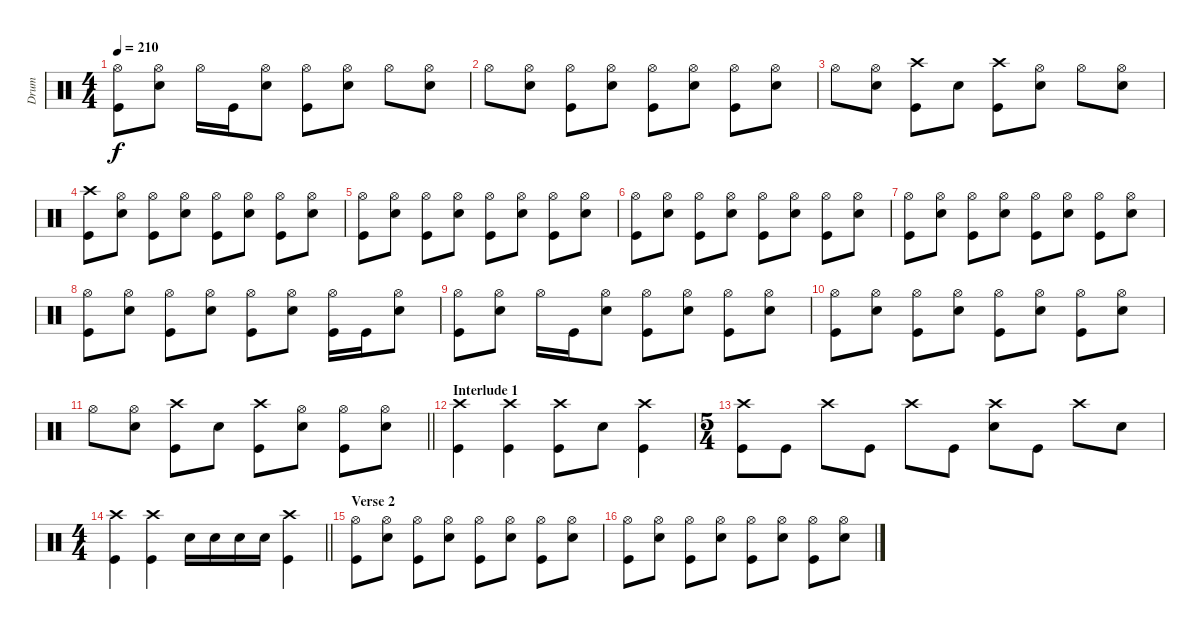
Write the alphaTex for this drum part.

\track ("Drum" "Drum") {instrument percussion}
\staff {score}
\articulation defaults
\ts (4 4)
\tempo 210
\clef neutral
\ks c
("Hi-Hat (open)" "Kick (hit)").8{dy f} ("Hi-Hat (open)" "Snare (hit) 2").8 "Hi-Hat (open)".16 "Kick (hit)".16 ("Hi-Hat (open)" "Snare (hit) 2").8 ("Hi-Hat (open)" "Kick (hit)").8 ("Hi-Hat (open)" "Snare (hit) 2").8 "Hi-Hat (open)".8 ("Hi-Hat (open)" "Snare (hit) 2").8 |
"Hi-Hat (open)".8 ("Hi-Hat (open)" "Snare (hit) 2").8 ("Hi-Hat (open)" "Kick (hit)").8 ("Hi-Hat (open)" "Snare (hit) 2").8 ("Hi-Hat (open)" "Kick (hit)").8 ("Hi-Hat (open)" "Snare (hit) 2").8 ("Hi-Hat (open)" "Kick (hit)").8 ("Hi-Hat (open)" "Snare (hit) 2").8 |
"Hi-Hat (open)".8 ("Hi-Hat (open)" "Snare (hit) 2").8 ("Crash high (hit)" "Kick (hit)").8 "Snare (hit) 2".8 ("Crash high (hit)" "Kick (hit)").8 ("Hi-Hat (open)" "Snare (hit) 2").8 "Hi-Hat (open)".8 ("Hi-Hat (open)" "Snare (hit) 2").8 |
("Crash high (hit)" "Kick (hit)").8 ("Hi-Hat (open)" "Snare (hit) 2").8 ("Hi-Hat (open)" "Kick (hit)").8 ("Hi-Hat (open)" "Snare (hit) 2").8 ("Hi-Hat (open)" "Kick (hit)").8 ("Hi-Hat (open)" "Snare (hit) 2").8 ("Hi-Hat (open)" "Kick (hit)").8 ("Hi-Hat (open)" "Snare (hit) 2").8 |
("Hi-Hat (open)" "Kick (hit)").8 ("Hi-Hat (open)" "Snare (hit) 2").8 ("Hi-Hat (open)" "Kick (hit)").8 ("Hi-Hat (open)" "Snare (hit) 2").8 ("Hi-Hat (open)" "Kick (hit)").8 ("Hi-Hat (open)" "Snare (hit) 2").8 ("Hi-Hat (open)" "Kick (hit)").8 ("Hi-Hat (open)" "Snare (hit) 2").8 |
("Hi-Hat (open)" "Kick (hit)").8 ("Hi-Hat (open)" "Snare (hit) 2").8 ("Hi-Hat (open)" "Kick (hit)").8 ("Hi-Hat (open)" "Snare (hit) 2").8 ("Hi-Hat (open)" "Kick (hit)").8 ("Hi-Hat (open)" "Snare (hit) 2").8 ("Hi-Hat (open)" "Kick (hit)").8 ("Hi-Hat (open)" "Snare (hit) 2").8 |
("Hi-Hat (open)" "Kick (hit)").8 ("Hi-Hat (open)" "Snare (hit) 2").8 ("Hi-Hat (open)" "Kick (hit)").8 ("Hi-Hat (open)" "Snare (hit) 2").8 ("Hi-Hat (open)" "Kick (hit)").8 ("Hi-Hat (open)" "Snare (hit) 2").8 ("Hi-Hat (open)" "Kick (hit)").8 ("Hi-Hat (open)" "Snare (hit) 2").8 |
("Hi-Hat (open)" "Kick (hit)").8 ("Hi-Hat (open)" "Snare (hit) 2").8 ("Hi-Hat (open)" "Kick (hit)").8 ("Hi-Hat (open)" "Snare (hit) 2").8 ("Hi-Hat (open)" "Kick (hit)").8 ("Hi-Hat (open)" "Snare (hit) 2").8 ("Hi-Hat (open)" "Kick (hit)").16 "Kick (hit)".16 ("Hi-Hat (open)" "Snare (hit) 2").8 |
("Hi-Hat (open)" "Kick (hit)").8 ("Hi-Hat (open)" "Snare (hit) 2").8 "Hi-Hat (open)".16 "Kick (hit)".16 ("Hi-Hat (open)" "Snare (hit) 2").8 ("Hi-Hat (open)" "Kick (hit)").8 ("Hi-Hat (open)" "Snare (hit) 2").8 ("Hi-Hat (open)" "Kick (hit)").8 ("Hi-Hat (open)" "Snare (hit) 2").8 |
("Hi-Hat (open)" "Kick (hit)").8 ("Hi-Hat (open)" "Snare (hit) 2").8 ("Hi-Hat (open)" "Kick (hit)").8 ("Hi-Hat (open)" "Snare (hit) 2").8 ("Hi-Hat (open)" "Kick (hit)").8 ("Hi-Hat (open)" "Snare (hit) 2").8 ("Hi-Hat (open)" "Kick (hit)").8 ("Hi-Hat (open)" "Snare (hit) 2").8 |
\barLineRight lightlight "Hi-Hat (open)".8
("Hi-Hat (open)" "Snare (hit) 2").8 ("Crash high (hit)" "Kick (hit)").8 "Snare (hit) 2".8 ("Crash high (hit)" "Kick (hit)").8 ("Hi-Hat (open)" "Snare (hit) 2").8 ("Hi-Hat (open)" "Kick (hit)").8 ("Hi-Hat (open)" "Snare (hit) 2").8 |
\section ("" "Interlude 1")
("Crash high (hit)" "Kick (hit)").4 ("Crash high (hit)" "Kick (hit)").4 ("Crash high (hit)" "Kick (hit)").8 "Snare (hit) 2".8 ("Crash high (hit)" "Kick (hit)").4 |
\ts (5 4)
("Crash high (hit)" "Kick (hit)").8 "Kick (hit)".8 "Crash high (hit)".8 "Kick (hit)".8 "Crash high (hit)".8 "Kick (hit)".8 ("Crash high (hit)" "Snare (hit) 2").8 "Kick (hit)".8 "Crash high (hit)".8 "Snare (hit) 2".8 |
\ts (4 4)
\barLineRight lightlight
("Crash high (hit)" "Kick (hit)").4 ("Crash high (hit)" "Kick (hit)").4 "Snare (hit) 2".16 "Snare (hit) 2".16 "Snare (hit) 2".16 "Snare (hit) 2".16 ("Crash high (hit)" "Kick (hit)").4 |
\section ("" "Verse 2")
("Hi-Hat (open)" "Kick (hit)").8 ("Hi-Hat (open)" "Snare (hit) 2").8 ("Hi-Hat (open)" "Kick (hit)").8 ("Hi-Hat (open)" "Snare (hit) 2").8 ("Hi-Hat (open)" "Kick (hit)").8 ("Hi-Hat (open)" "Snare (hit) 2").8 ("Hi-Hat (open)" "Kick (hit)").8 ("Hi-Hat (open)" "Snare (hit) 2").8 |
("Hi-Hat (open)" "Kick (hit)").8 ("Hi-Hat (open)" "Snare (hit) 2").8 ("Hi-Hat (open)" "Kick (hit)").8 ("Hi-Hat (open)" "Snare (hit) 2").8 ("Hi-Hat (open)" "Kick (hit)").8 ("Hi-Hat (open)" "Snare (hit) 2").8 ("Hi-Hat (open)" "Kick (hit)").8 ("Hi-Hat (open)" "Snare (hit) 2").8
